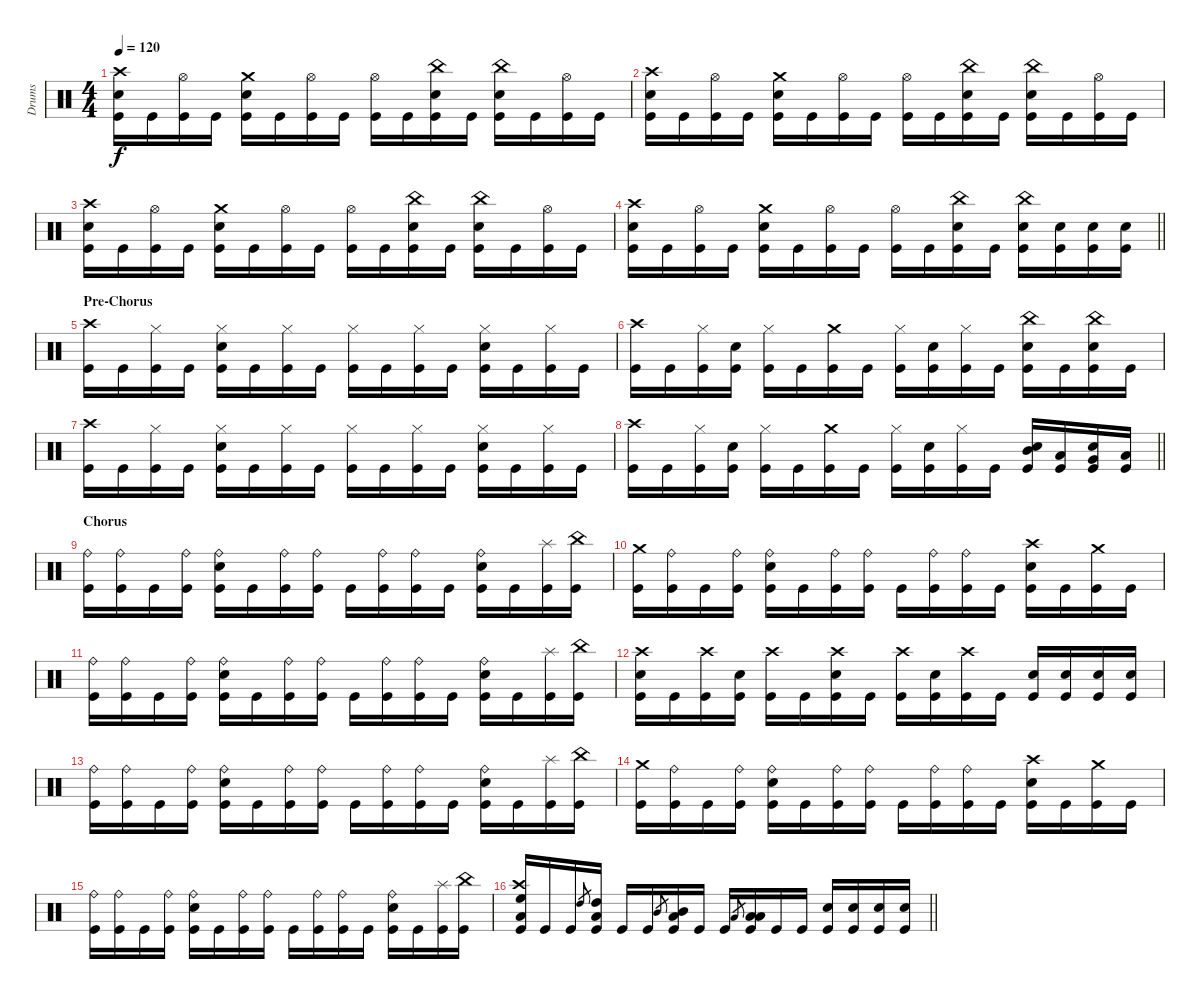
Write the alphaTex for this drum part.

\track ("Drums" "Drums") {instrument percussion}
\staff {score}
\articulation defaults
\ts (4 4)
\tempo 120
\clef neutral
\ks c
("Kick (hit)" "Crash high (hit)" "Snare (hit) 2").16{dy f} "Kick (hit)".16 ("Kick (hit)" "Hi-Hat (open)").16 "Kick (hit)".16 ("Kick (hit)" "Crash medium (hit)" "Snare (hit) 2").16 "Kick (hit)".16 ("Kick (hit)" "Hi-Hat (open)").16 "Kick (hit)".16 ("Kick (hit)" "Hi-Hat (open)").16 "Kick (hit)".16 ("Kick (hit)" "China (hit)" "Snare (hit) 2").16 "Kick (hit)".16 ("Kick (hit)" "China (hit)" "Snare (hit) 2").16 "Kick (hit)".16 ("Kick (hit)" "Hi-Hat (open)").16 "Kick (hit)".16 |
("Kick (hit)" "Crash high (hit)" "Snare (hit) 2").16 "Kick (hit)".16 ("Kick (hit)" "Hi-Hat (open)").16 "Kick (hit)".16 ("Kick (hit)" "Crash medium (hit)" "Snare (hit) 2").16 "Kick (hit)".16 ("Kick (hit)" "Hi-Hat (open)").16 "Kick (hit)".16 ("Kick (hit)" "Hi-Hat (open)").16 "Kick (hit)".16 ("Kick (hit)" "China (hit)" "Snare (hit) 2").16 "Kick (hit)".16 ("Kick (hit)" "China (hit)" "Snare (hit) 2").16 "Kick (hit)".16 ("Kick (hit)" "Hi-Hat (open)").16 "Kick (hit)".16 |
("Kick (hit)" "Crash high (hit)" "Snare (hit) 2").16 "Kick (hit)".16 ("Kick (hit)" "Hi-Hat (open)").16 "Kick (hit)".16 ("Kick (hit)" "Crash medium (hit)" "Snare (hit) 2").16 "Kick (hit)".16 ("Kick (hit)" "Hi-Hat (open)").16 "Kick (hit)".16 ("Kick (hit)" "Hi-Hat (open)").16 "Kick (hit)".16 ("Kick (hit)" "China (hit)" "Snare (hit) 2").16 "Kick (hit)".16 ("Kick (hit)" "China (hit)" "Snare (hit) 2").16 "Kick (hit)".16 ("Kick (hit)" "Hi-Hat (open)").16 "Kick (hit)".16 |
\barLineRight lightlight
("Kick (hit)" "Crash high (hit)" "Snare (hit) 2").16 "Kick (hit)".16 ("Kick (hit)" "Hi-Hat (open)").16 "Kick (hit)".16 ("Kick (hit)" "Crash medium (hit)" "Snare (hit) 2").16 "Kick (hit)".16 ("Kick (hit)" "Hi-Hat (open)").16 "Kick (hit)".16 ("Kick (hit)" "Hi-Hat (open)").16 "Kick (hit)".16 ("Kick (hit)" "China (hit)" "Snare (hit) 2").16 "Kick (hit)".16 ("Kick (hit)" "China (hit)" "Snare (hit) 2").16 ("Kick (hit)" "Snare (hit) 2").16 ("Kick (hit)" "Snare (hit) 2").16 ("Kick (hit)" "Snare (hit) 2").16 |
\section ("" "Pre-Chorus")
("Crash high (hit)" "Kick (hit)").16 "Kick (hit)".16 ("Hi-Hat (closed)" "Kick (hit)").16 "Kick (hit)".16 ("Hi-Hat (closed)" "Snare (hit) 2" "Kick (hit)").16 "Kick (hit)".16 ("Hi-Hat (closed)" "Kick (hit)").16 "Kick (hit)".16 ("Hi-Hat (closed)" "Kick (hit)").16 "Kick (hit)".16 ("Hi-Hat (closed)" "Kick (hit)").16 "Kick (hit)".16 ("Hi-Hat (closed)" "Snare (hit) 2" "Kick (hit)").16 "Kick (hit)".16 ("Hi-Hat (closed)" "Kick (hit)").16 "Kick (hit)".16 |
("Crash high (hit)" "Kick (hit)").16 "Kick (hit)".16 ("Hi-Hat (closed)" "Kick (hit)").16 ("Snare (hit) 2" "Kick (hit)").16 ("Hi-Hat (closed)" "Kick (hit)").16 "Kick (hit)".16 ("Crash medium (hit)" "Kick (hit)").16 "Kick (hit)".16 ("Hi-Hat (closed)" "Kick (hit)").16 ("Snare (hit) 2" "Kick (hit)").16 ("Hi-Hat (closed)" "Kick (hit)").16 "Kick (hit)".16 ("China (hit)" "Snare (hit) 2" "Kick (hit)").16 "Kick (hit)".16 ("China (hit)" "Snare (hit) 2" "Kick (hit)").16 "Kick (hit)".16 |
("Crash high (hit)" "Kick (hit)").16 "Kick (hit)".16 ("Hi-Hat (closed)" "Kick (hit)").16 "Kick (hit)".16 ("Hi-Hat (closed)" "Snare (hit) 2" "Kick (hit)").16 "Kick (hit)".16 ("Hi-Hat (closed)" "Kick (hit)").16 "Kick (hit)".16 ("Hi-Hat (closed)" "Kick (hit)").16 "Kick (hit)".16 ("Hi-Hat (closed)" "Kick (hit)").16 "Kick (hit)".16 ("Hi-Hat (closed)" "Snare (hit) 2" "Kick (hit)").16 "Kick (hit)".16 ("Hi-Hat (closed)" "Kick (hit)").16 "Kick (hit)".16 |
\barLineRight lightlight
("Crash high (hit)" "Kick (hit)").16 "Kick (hit)".16 ("Hi-Hat (closed)" "Kick (hit)").16 ("Snare (hit) 2" "Kick (hit)").16 ("Hi-Hat (closed)" "Kick (hit)").16 "Kick (hit)".16 ("Crash medium (hit)" "Kick (hit)").16 "Kick (hit)".16 ("Hi-Hat (closed)" "Kick (hit)").16 ("Snare (hit) 2" "Kick (hit)").16 ("Hi-Hat (closed)" "Kick (hit)").16 "Kick (hit)".16 ("Snare (hit) 2" "Mid Tom (hit)" "Kick (hit)").16 ("Low Tom (hit)" "Kick (hit)").16 ("Snare (hit) 2" "Very Low Tom (hit)" "Kick (hit)").16 ("Low Floor Tom (hit)" "Kick (hit)").16 |
\section ("" "Chorus")
("Ride (bell)" "Kick (hit)").16 ("Ride (bell)" "Kick (hit)").16 "Kick (hit)".16 ("Ride (bell)" "Kick (hit)").16 ("Ride (bell)" "Snare (hit) 2" "Kick (hit)").16 "Kick (hit)".16 ("Ride (bell)" "Kick (hit)").16 ("Ride (bell)" "Kick (hit)").16 "Kick (hit)".16 ("Ride (bell)" "Kick (hit)").16 ("Ride (bell)" "Kick (hit)").16 "Kick (hit)".16 ("Ride (bell)" "Snare (hit) 2" "Kick (hit)").16 "Kick (hit)".16 ("Splash (hit)" "Kick (hit)").16 ("China (hit)" "Kick (hit)").16 |
("Crash medium (hit)" "Kick (hit)").16 ("Ride (bell)" "Kick (hit)").16 "Kick (hit)".16 ("Ride (bell)" "Kick (hit)").16 ("Ride (bell)" "Snare (hit) 2" "Kick (hit)").16 "Kick (hit)".16 ("Ride (bell)" "Kick (hit)").16 ("Ride (bell)" "Kick (hit)").16 "Kick (hit)".16 ("Ride (bell)" "Kick (hit)").16 ("Ride (bell)" "Kick (hit)").16 "Kick (hit)".16 ("Crash high (hit)" "Snare (hit) 2" "Kick (hit)").16 "Kick (hit)".16 ("Crash medium (hit)" "Kick (hit)").16 "Kick (hit)".16 |
("Ride (bell)" "Kick (hit)").16 ("Ride (bell)" "Kick (hit)").16 "Kick (hit)".16 ("Ride (bell)" "Kick (hit)").16 ("Ride (bell)" "Snare (hit) 2" "Kick (hit)").16 "Kick (hit)".16 ("Ride (bell)" "Kick (hit)").16 ("Ride (bell)" "Kick (hit)").16 "Kick (hit)".16 ("Ride (bell)" "Kick (hit)").16 ("Ride (bell)" "Kick (hit)").16 "Kick (hit)".16 ("Ride (bell)" "Snare (hit) 2" "Kick (hit)").16 "Kick (hit)".16 ("Splash (hit)" "Kick (hit)").16 ("China (hit)" "Kick (hit)").16 |
("Crash high (hit)" "Snare (hit) 2" "Kick (hit)").16 "Kick (hit)".16 ("Crash high (hit)" "Kick (hit)").16 ("Snare (hit) 2" "Kick (hit)").16 ("Crash high (hit)" "Kick (hit)").16 "Kick (hit)".16 ("Crash high (hit)" "Snare (hit) 2" "Kick (hit)").16 "Kick (hit)".16 ("Crash high (hit)" "Kick (hit)").16 ("Snare (hit) 2" "Kick (hit)").16 ("Crash high (hit)" "Kick (hit)").16 "Kick (hit)".16 ("Snare (hit) 2" "Kick (hit)").16 ("Snare (hit) 2" "Kick (hit)").16 ("Snare (hit) 2" "Kick (hit)").16 ("Snare (hit) 2" "Kick (hit)").16 |
("Ride (bell)" "Kick (hit)").16 ("Ride (bell)" "Kick (hit)").16 "Kick (hit)".16 ("Ride (bell)" "Kick (hit)").16 ("Ride (bell)" "Snare (hit) 2" "Kick (hit)").16 "Kick (hit)".16 ("Ride (bell)" "Kick (hit)").16 ("Ride (bell)" "Kick (hit)").16 "Kick (hit)".16 ("Ride (bell)" "Kick (hit)").16 ("Ride (bell)" "Kick (hit)").16 "Kick (hit)".16 ("Ride (bell)" "Snare (hit) 2" "Kick (hit)").16 "Kick (hit)".16 ("Splash (hit)" "Kick (hit)").16 ("China (hit)" "Kick (hit)").16 |
("Crash medium (hit)" "Kick (hit)").16 ("Ride (bell)" "Kick (hit)").16 "Kick (hit)".16 ("Ride (bell)" "Kick (hit)").16 ("Ride (bell)" "Snare (hit) 2" "Kick (hit)").16 "Kick (hit)".16 ("Ride (bell)" "Kick (hit)").16 ("Ride (bell)" "Kick (hit)").16 "Kick (hit)".16 ("Ride (bell)" "Kick (hit)").16 ("Ride (bell)" "Kick (hit)").16 "Kick (hit)".16 ("Crash high (hit)" "Snare (hit) 2" "Kick (hit)").16 "Kick (hit)".16 ("Crash medium (hit)" "Kick (hit)").16 "Kick (hit)".16 |
("Ride (bell)" "Kick (hit)").16 ("Ride (bell)" "Kick (hit)").16 "Kick (hit)".16 ("Ride (bell)" "Kick (hit)").16 ("Ride (bell)" "Snare (hit) 2" "Kick (hit)").16 "Kick (hit)".16 ("Ride (bell)" "Kick (hit)").16 ("Ride (bell)" "Kick (hit)").16 "Kick (hit)".16 ("Ride (bell)" "Kick (hit)").16 ("Ride (bell)" "Kick (hit)").16 "Kick (hit)".16 ("Ride (bell)" "Snare (hit) 2" "Kick (hit)").16 "Kick (hit)".16 ("Splash (hit)" "Kick (hit)").16 ("China (hit)" "Kick (hit)").16 |
\barLineRight lightlight
("Crash high (hit)" "High Floor Tom (hit)" "Low Floor Tom (hit)" "Kick (hit)").16 "Kick (hit)".16 "Kick (hit)".16 "High Tom (hit)".8{gr} ("High Tom (hit)" "Low Floor Tom (hit)" "Kick (hit)").16 "Kick (hit)".16 "Kick (hit)".16 "Mid Tom (hit)".8{gr} ("Mid Tom (hit)" "Low Floor Tom (hit)" "Kick (hit)").16 "Kick (hit)".16 "Kick (hit)".16 "Low Tom (hit)".8{gr} ("Low Tom (hit)" "Low Floor Tom (hit)" "Kick (hit)").16 "Kick (hit)".16 "Kick (hit)".16 ("Snare (hit) 2" "Kick (hit)").16 ("Snare (hit) 2" "Kick (hit)").16 ("Snare (hit) 2" "Kick (hit)").16 ("Snare (hit) 2" "Kick (hit)").16
